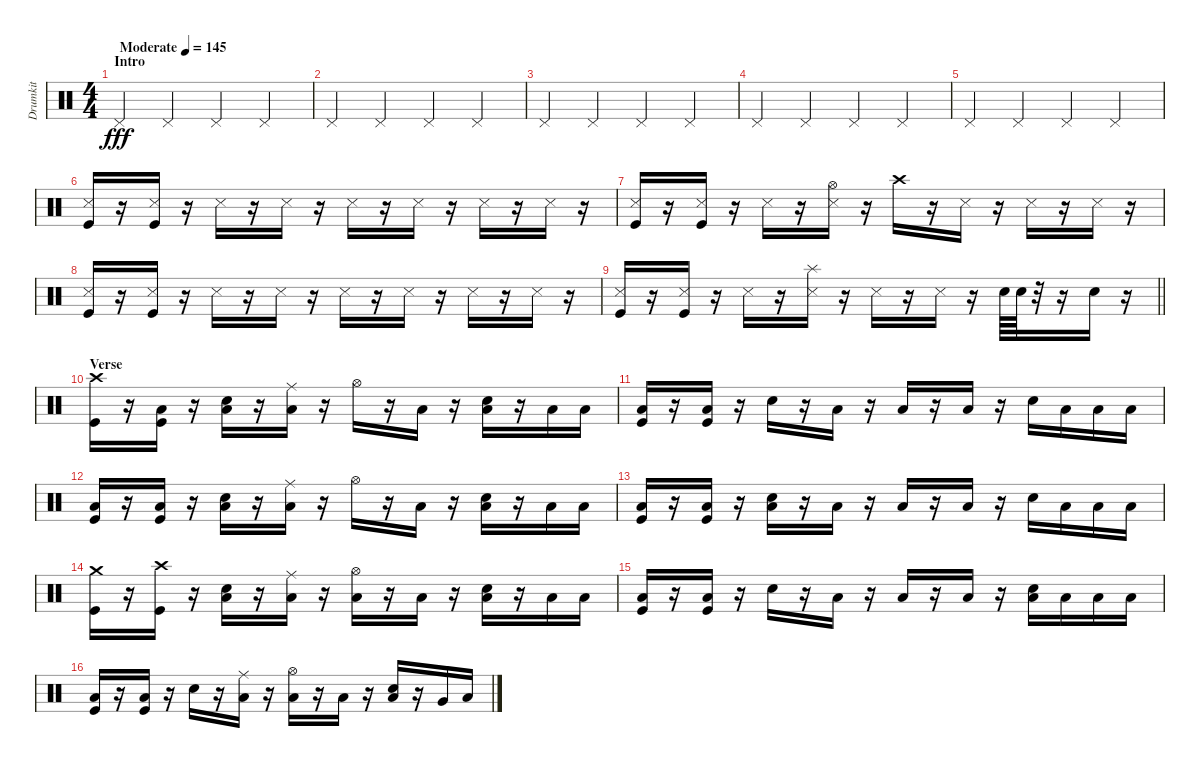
\track ("Drumkit" "Drumkit") {instrument percussion}
\staff {score}
\articulation defaults
\ts (4 4)
\section ("" "Intro")
\tempo (145 "Moderate")
\clef neutral
\ks c "Pedal Hi-Hat (hit)".4{dy fff} "Pedal Hi-Hat (hit)".4 "Pedal Hi-Hat (hit)".4 "Pedal Hi-Hat (hit)".4
|
"Pedal Hi-Hat (hit)".4 "Pedal Hi-Hat (hit)".4 "Pedal Hi-Hat (hit)".4 "Pedal Hi-Hat (hit)".4 |
"Pedal Hi-Hat (hit)".4 "Pedal Hi-Hat (hit)".4 "Pedal Hi-Hat (hit)".4 "Pedal Hi-Hat (hit)".4 |
"Pedal Hi-Hat (hit)".4 "Pedal Hi-Hat (hit)".4 "Pedal Hi-Hat (hit)".4 "Pedal Hi-Hat (hit)".4 |
"Pedal Hi-Hat (hit)".4 "Pedal Hi-Hat (hit)".4 "Pedal Hi-Hat (hit)".4 "Pedal Hi-Hat (hit)".4 |
("Snare (side stick) 3" "Kick (hit)").16 r.16 ("Snare (side stick) 3" "Kick (hit)").16 r.16 "Snare (side stick) 3".16 r.16 "Snare (side stick) 3".16 r.16 "Snare (side stick) 3".16 r.16 "Snare (side stick) 3".16 r.16 "Snare (side stick) 3".16 r.16 "Snare (side stick) 3".16 r.16 |
("Snare (side stick) 3" "Kick (hit)").16 r.16 ("Snare (side stick) 3" "Kick (hit)").16 r.16 "Snare (side stick) 3".16 r.16 ("Hi-Hat (open)" "Snare (side stick) 3").16 r.16 "Crash high (hit)".16 r.16 "Snare (side stick) 3".16 r.16 "Snare (side stick) 3".16 r.16 "Snare (side stick) 3".16 r.16 |
("Snare (side stick) 3" "Kick (hit)").16 r.16 ("Snare (side stick) 3" "Kick (hit)").16 r.16 "Snare (side stick) 3".16 r.16 "Snare (side stick) 3".16 r.16 "Snare (side stick) 3".16 r.16 "Snare (side stick) 3".16 r.16 "Snare (side stick) 3".16 r.16 "Snare (side stick) 3".16 r.16 |
\barLineRight lightlight
("Snare (side stick) 3" "Kick (hit)").16 r.16 ("Snare (side stick) 3" "Kick (hit)").16 r.16 "Snare (side stick) 3".16 r.16 ("Splash (hit)" "Snare (side stick) 3").16 r.16 "Snare (side stick) 3".16 r.16 "Snare (side stick) 3".16 r.16 "Snare (hit) 2".64 "Snare (hit) 2".64 r.32 r.16 "Snare (hit) 2".16 r.16 |
\section ("" "Verse")
("Crash high (hit)" "Kick (hit)").16 r.16 ("Low Floor Tom (hit)" "Kick (hit)").16 r.16 ("Low Floor Tom (hit)" "Snare (hit) 2").16 r.16 ("Ride (middle)" "Low Floor Tom (hit)").16 r.16 "Hi-Hat (open)".16 r.16 "Low Floor Tom (hit)".16 r.16 ("Snare (hit) 2" "Low Floor Tom (hit)").16 r.16 "Low Floor Tom (hit)".16 "Low Floor Tom (hit)".16 |
("Low Floor Tom (hit)" "Kick (hit)").16 r.16 ("Low Floor Tom (hit)" "Kick (hit)").16 r.16 "Snare (hit) 2".16 r.16 "Low Tom (hit)".16 r.16 "Low Tom (hit)".16 r.16 "Low Floor Tom (hit)".16 r.16 "Snare (hit) 2".16 "Low Tom (hit)".16 "Low Floor Tom (hit)".16 "Low Floor Tom (hit)".16 |
("Low Floor Tom (hit)" "Kick (hit)").16 r.16 ("Low Floor Tom (hit)" "Kick (hit)").16 r.16 ("Low Floor Tom (hit)" "Snare (hit) 2").16 r.16 ("Ride (middle)" "Low Floor Tom (hit)").16 r.16 "Hi-Hat (open)".16 r.16 "Low Floor Tom (hit)".16 r.16 ("Snare (hit) 2" "Low Floor Tom (hit)").16 r.16 "Low Floor Tom (hit)".16 "Low Floor Tom (hit)".16 |
("Low Floor Tom (hit)" "Kick (hit)").16 r.16 ("Low Floor Tom (hit)" "Kick (hit)").16 r.16 ("Snare (hit) 2" "Low Floor Tom (hit)").16 r.16 "Low Floor Tom (hit)".16 r.16 "Low Floor Tom (hit)".16 r.16 "Low Floor Tom (hit)".16 r.16 "Snare (hit) 2".16 "Low Tom (hit)".16 "Low Floor Tom (hit)".16 "Low Floor Tom (hit)".16 |
("Crash medium (hit)" "Kick (hit)").16 r.16 ("Crash high (hit)" "Kick (hit)").16 r.16 ("Low Floor Tom (hit)" "Snare (hit) 2").16 r.16 ("Ride (middle)" "Low Floor Tom (hit)").16 r.16 ("Hi-Hat (open)" "Low Floor Tom (hit)").16 r.16 "Low Floor Tom (hit)".16 r.16 ("Snare (hit) 2" "Low Floor Tom (hit)").16 r.16 "Low Floor Tom (hit)".16 "Low Floor Tom (hit)".16 |
("Low Floor Tom (hit)" "Kick (hit)").16 r.16 ("Low Floor Tom (hit)" "Kick (hit)").16 r.16 "Snare (hit) 2".16 r.16 "Low Tom (hit)".16 r.16 "Low Tom (hit)".16 r.16 "Low Floor Tom (hit)".16 r.16 ("Snare (hit) 2" "Low Floor Tom (hit)").16 "Low Tom (hit)".16 "Low Floor Tom (hit)".16 "Low Floor Tom (hit)".16 |
("Low Floor Tom (hit)" "Kick (hit)").16 r.16 ("Low Floor Tom (hit)" "Kick (hit)").16 r.16 "Snare (hit) 2".16 r.16 ("Ride (middle)" "Low Floor Tom (hit)").16 r.16 ("Hi-Hat (open)" "Low Floor Tom (hit)").16 r.16 "Low Floor Tom (hit)".16 r.16 ("Snare (hit) 2" "Low Floor Tom (hit)").16 r.16 "Very Low Tom (hit)".16 "Low Floor Tom (hit)".16
